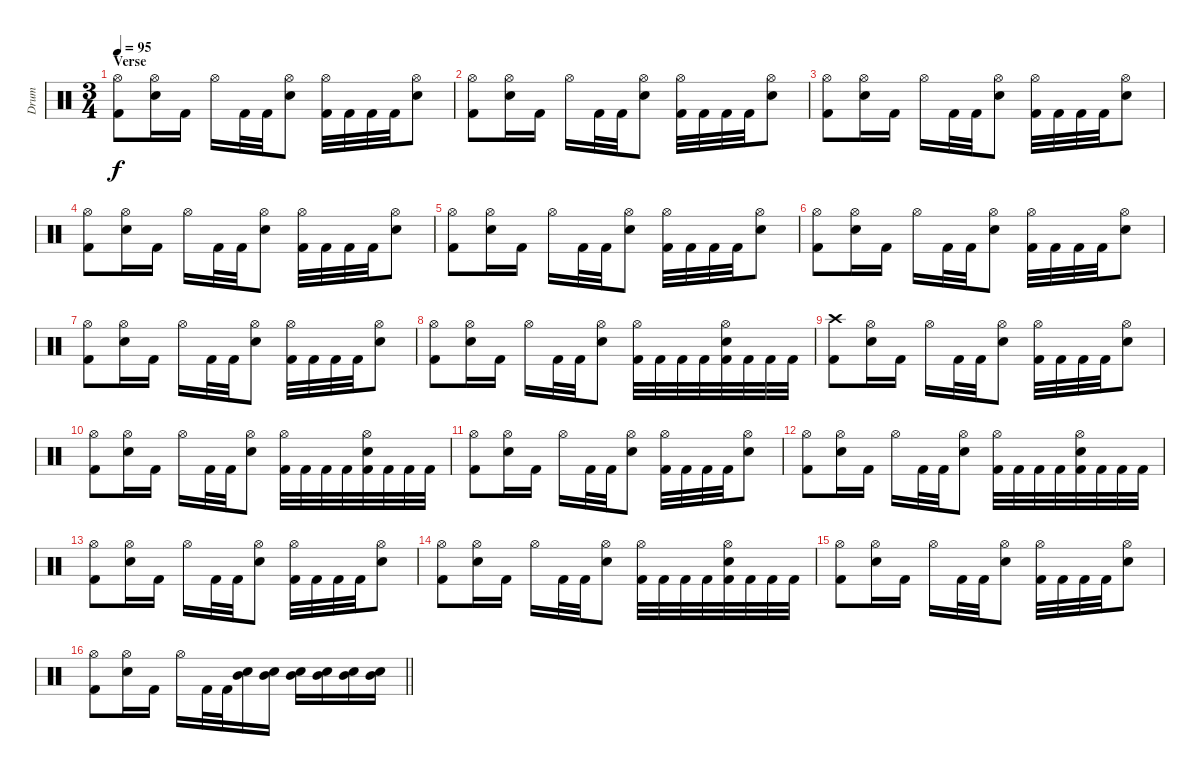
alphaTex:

\track ("Drum" "Drum") {instrument percussion}
\staff {score}
\articulation defaults
\ts (3 4)
\section ("" "Verse")
\tempo 95
\clef neutral
\ks c
("Hi-Hat (open)" "Kick (hit) 2").8{dy f} ("Hi-Hat (open)" "Electric Snare (hit)").16 "Kick (hit) 2".16 "Hi-Hat (open)".16 "Kick (hit) 2".32 "Kick (hit) 2".32 ("Hi-Hat (open)" "Electric Snare (hit)").8 ("Hi-Hat (open)" "Kick (hit) 2").32 "Kick (hit) 2".32 "Kick (hit) 2".32 "Kick (hit) 2".32 ("Hi-Hat (open)" "Electric Snare (hit)").8 |
("Hi-Hat (open)" "Kick (hit) 2").8 ("Hi-Hat (open)" "Electric Snare (hit)").16 "Kick (hit) 2".16 "Hi-Hat (open)".16 "Kick (hit) 2".32 "Kick (hit) 2".32 ("Hi-Hat (open)" "Electric Snare (hit)").8 ("Hi-Hat (open)" "Kick (hit) 2").32 "Kick (hit) 2".32 "Kick (hit) 2".32 "Kick (hit) 2".32 ("Hi-Hat (open)" "Electric Snare (hit)").8 |
("Hi-Hat (open)" "Kick (hit) 2").8 ("Hi-Hat (open)" "Electric Snare (hit)").16 "Kick (hit) 2".16 "Hi-Hat (open)".16 "Kick (hit) 2".32 "Kick (hit) 2".32 ("Hi-Hat (open)" "Electric Snare (hit)").8 ("Hi-Hat (open)" "Kick (hit) 2").32 "Kick (hit) 2".32 "Kick (hit) 2".32 "Kick (hit) 2".32 ("Hi-Hat (open)" "Electric Snare (hit)").8 |
("Hi-Hat (open)" "Kick (hit) 2").8 ("Hi-Hat (open)" "Electric Snare (hit)").16 "Kick (hit) 2".16 "Hi-Hat (open)".16 "Kick (hit) 2".32 "Kick (hit) 2".32 ("Hi-Hat (open)" "Electric Snare (hit)").8 ("Hi-Hat (open)" "Kick (hit) 2").32 "Kick (hit) 2".32 "Kick (hit) 2".32 "Kick (hit) 2".32 ("Hi-Hat (open)" "Electric Snare (hit)").8 |
("Hi-Hat (open)" "Kick (hit) 2").8 ("Hi-Hat (open)" "Electric Snare (hit)").16 "Kick (hit) 2".16 "Hi-Hat (open)".16 "Kick (hit) 2".32 "Kick (hit) 2".32 ("Hi-Hat (open)" "Electric Snare (hit)").8 ("Hi-Hat (open)" "Kick (hit) 2").32 "Kick (hit) 2".32 "Kick (hit) 2".32 "Kick (hit) 2".32 ("Hi-Hat (open)" "Electric Snare (hit)").8 |
("Hi-Hat (open)" "Kick (hit) 2").8 ("Hi-Hat (open)" "Electric Snare (hit)").16 "Kick (hit) 2".16 "Hi-Hat (open)".16 "Kick (hit) 2".32 "Kick (hit) 2".32 ("Hi-Hat (open)" "Electric Snare (hit)").8 ("Hi-Hat (open)" "Kick (hit) 2").32 "Kick (hit) 2".32 "Kick (hit) 2".32 "Kick (hit) 2".32 ("Hi-Hat (open)" "Electric Snare (hit)").8 |
("Hi-Hat (open)" "Kick (hit) 2").8 ("Hi-Hat (open)" "Electric Snare (hit)").16 "Kick (hit) 2".16 "Hi-Hat (open)".16 "Kick (hit) 2".32 "Kick (hit) 2".32 ("Hi-Hat (open)" "Electric Snare (hit)").8 ("Hi-Hat (open)" "Kick (hit) 2").32 "Kick (hit) 2".32 "Kick (hit) 2".32 "Kick (hit) 2".32 ("Hi-Hat (open)" "Electric Snare (hit)").8 |
("Hi-Hat (open)" "Kick (hit) 2").8 ("Hi-Hat (open)" "Electric Snare (hit)").16 "Kick (hit) 2".16 "Hi-Hat (open)".16 "Kick (hit) 2".32 "Kick (hit) 2".32 ("Hi-Hat (open)" "Electric Snare (hit)").8 ("Hi-Hat (open)" "Kick (hit) 2").32 "Kick (hit) 2".32 "Kick (hit) 2".32 "Kick (hit) 2".32 ("Hi-Hat (open)" "Electric Snare (hit)" "Kick (hit) 2").32 "Kick (hit) 2".32 "Kick (hit) 2".32 "Kick (hit) 2".32 |
("Crash high (hit)" "Kick (hit) 2").8 ("Hi-Hat (open)" "Electric Snare (hit)").16 "Kick (hit) 2".16 "Hi-Hat (open)".16 "Kick (hit) 2".32 "Kick (hit) 2".32 ("Hi-Hat (open)" "Electric Snare (hit)").8 ("Hi-Hat (open)" "Kick (hit) 2").32 "Kick (hit) 2".32 "Kick (hit) 2".32 "Kick (hit) 2".32 ("Hi-Hat (open)" "Electric Snare (hit)").8 |
("Hi-Hat (open)" "Kick (hit) 2").8 ("Hi-Hat (open)" "Electric Snare (hit)").16 "Kick (hit) 2".16 "Hi-Hat (open)".16 "Kick (hit) 2".32 "Kick (hit) 2".32 ("Hi-Hat (open)" "Electric Snare (hit)").8 ("Hi-Hat (open)" "Kick (hit) 2").32 "Kick (hit) 2".32 "Kick (hit) 2".32 "Kick (hit) 2".32 ("Hi-Hat (open)" "Electric Snare (hit)" "Kick (hit) 2").32 "Kick (hit) 2".32 "Kick (hit) 2".32 "Kick (hit) 2".32 |
("Hi-Hat (open)" "Kick (hit) 2").8 ("Hi-Hat (open)" "Electric Snare (hit)").16 "Kick (hit) 2".16 "Hi-Hat (open)".16 "Kick (hit) 2".32 "Kick (hit) 2".32 ("Hi-Hat (open)" "Electric Snare (hit)").8 ("Hi-Hat (open)" "Kick (hit) 2").32 "Kick (hit) 2".32 "Kick (hit) 2".32 "Kick (hit) 2".32 ("Hi-Hat (open)" "Electric Snare (hit)").8 |
("Hi-Hat (open)" "Kick (hit) 2").8 ("Hi-Hat (open)" "Electric Snare (hit)").16 "Kick (hit) 2".16 "Hi-Hat (open)".16 "Kick (hit) 2".32 "Kick (hit) 2".32 ("Hi-Hat (open)" "Electric Snare (hit)").8 ("Hi-Hat (open)" "Kick (hit) 2").32 "Kick (hit) 2".32 "Kick (hit) 2".32 "Kick (hit) 2".32 ("Hi-Hat (open)" "Electric Snare (hit)" "Kick (hit) 2").32 "Kick (hit) 2".32 "Kick (hit) 2".32 "Kick (hit) 2".32 |
("Hi-Hat (open)" "Kick (hit) 2").8 ("Hi-Hat (open)" "Electric Snare (hit)").16 "Kick (hit) 2".16 "Hi-Hat (open)".16 "Kick (hit) 2".32 "Kick (hit) 2".32 ("Hi-Hat (open)" "Electric Snare (hit)").8 ("Hi-Hat (open)" "Kick (hit) 2").32 "Kick (hit) 2".32 "Kick (hit) 2".32 "Kick (hit) 2".32 ("Hi-Hat (open)" "Electric Snare (hit)").8 |
("Hi-Hat (open)" "Kick (hit) 2").8 ("Hi-Hat (open)" "Electric Snare (hit)").16 "Kick (hit) 2".16 "Hi-Hat (open)".16 "Kick (hit) 2".32 "Kick (hit) 2".32 ("Hi-Hat (open)" "Electric Snare (hit)").8 ("Hi-Hat (open)" "Kick (hit) 2").32 "Kick (hit) 2".32 "Kick (hit) 2".32 "Kick (hit) 2".32 ("Hi-Hat (open)" "Electric Snare (hit)" "Kick (hit) 2").32 "Kick (hit) 2".32 "Kick (hit) 2".32 "Kick (hit) 2".32 |
("Hi-Hat (open)" "Kick (hit) 2").8 ("Hi-Hat (open)" "Electric Snare (hit)").16 "Kick (hit) 2".16 "Hi-Hat (open)".16 "Kick (hit) 2".32 "Kick (hit) 2".32 ("Hi-Hat (open)" "Electric Snare (hit)").8 ("Hi-Hat (open)" "Kick (hit) 2").32 "Kick (hit) 2".32 "Kick (hit) 2".32 "Kick (hit) 2".32 ("Hi-Hat (open)" "Electric Snare (hit)").8 |
\barLineRight lightlight
("Hi-Hat (open)" "Kick (hit) 2").8 ("Hi-Hat (open)" "Electric Snare (hit)").16 "Kick (hit) 2".16 "Hi-Hat (open)".16 "Kick (hit) 2".32 "Kick (hit) 2".32 ("Electric Snare (hit)" "Mid Tom (hit)").16 ("Electric Snare (hit)" "Mid Tom (hit)").16 ("Electric Snare (hit)" "Mid Tom (hit)").16 ("Electric Snare (hit)" "Mid Tom (hit)").16 ("Electric Snare (hit)" "Mid Tom (hit)").16 ("Electric Snare (hit)" "Mid Tom (hit)").16
